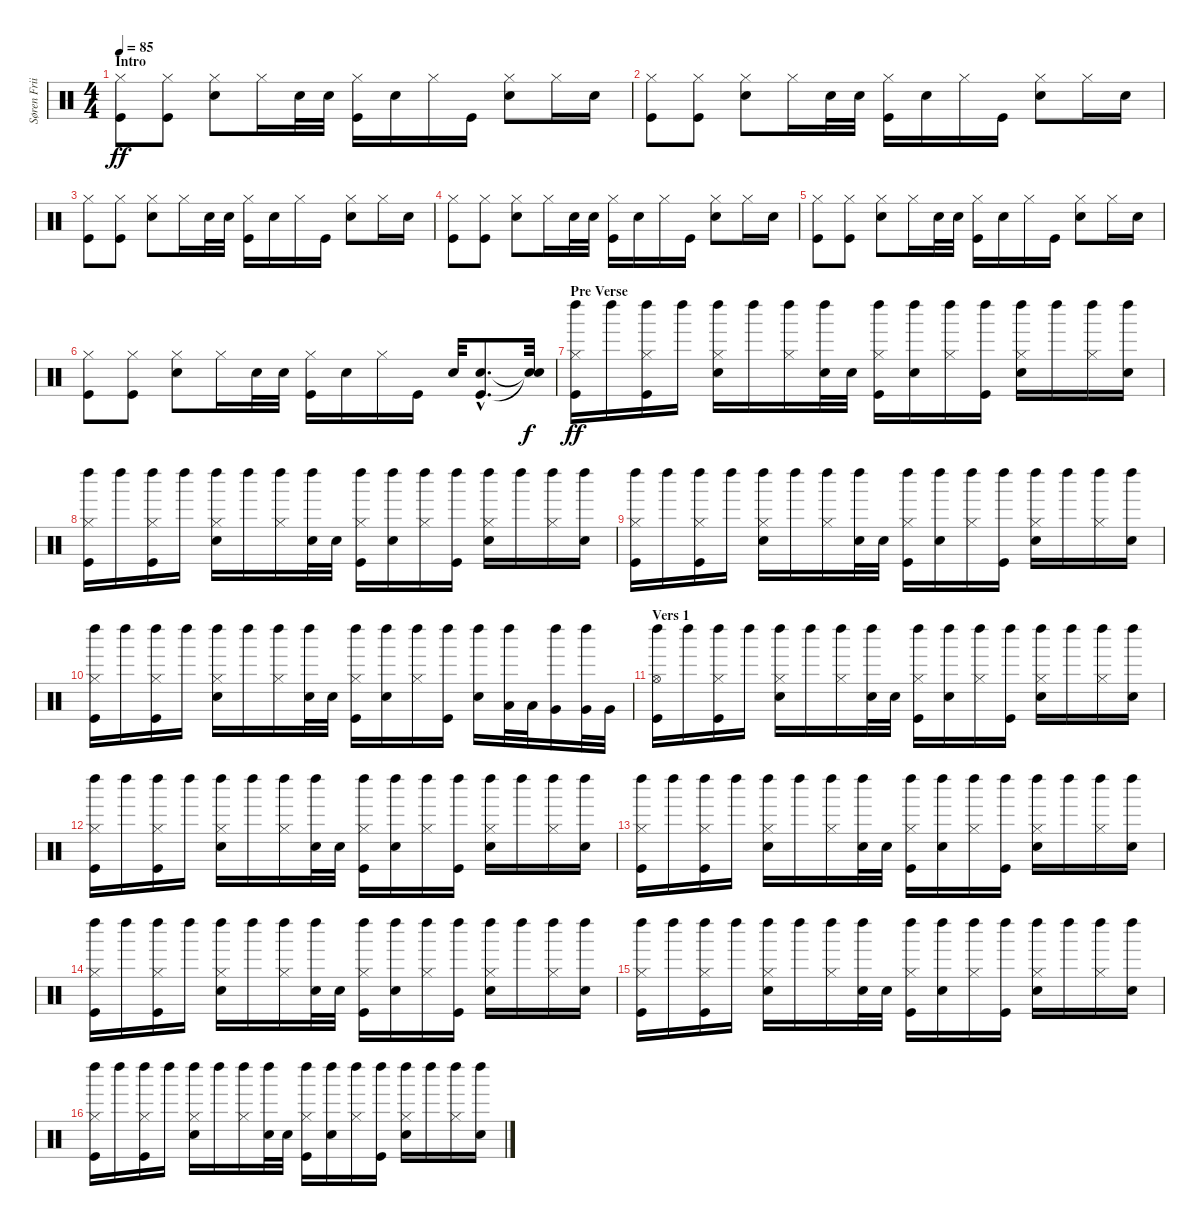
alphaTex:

\track ("Søren Friis (Drums)" "Søren Frii") {instrument percussion}
\staff {score}
\articulation defaults
\ts (4 4)
\section ("" "Intro")
\tempo 85
\clef neutral
\ks c
("Kick (hit)" "Hi-Hat (closed)").8{dy ff} ("Kick (hit)" "Hi-Hat (closed)").8 ("Snare (hit) 2" "Hi-Hat (closed)").8 "Hi-Hat (closed)".16 "Snare (hit) 2".32 "Snare (hit) 2".32 ("Kick (hit)" "Hi-Hat (closed)").16 "Snare (hit) 2".16 "Hi-Hat (closed)".16 "Kick (hit)".16 ("Snare (hit) 2" "Hi-Hat (closed)").8 "Hi-Hat (closed)".16 "Snare (hit) 2".16 |
("Kick (hit)" "Hi-Hat (closed)").8 ("Kick (hit)" "Hi-Hat (closed)").8 ("Snare (hit) 2" "Hi-Hat (closed)").8 "Hi-Hat (closed)".16 "Snare (hit) 2".32 "Snare (hit) 2".32 ("Kick (hit)" "Hi-Hat (closed)").16 "Snare (hit) 2".16 "Hi-Hat (closed)".16 "Kick (hit)".16 ("Snare (hit) 2" "Hi-Hat (closed)").8 "Hi-Hat (closed)".16 "Snare (hit) 2".16 |
("Kick (hit)" "Hi-Hat (closed)").8 ("Kick (hit)" "Hi-Hat (closed)").8 ("Snare (hit) 2" "Hi-Hat (closed)").8 "Hi-Hat (closed)".16 "Snare (hit) 2".32 "Snare (hit) 2".32 ("Kick (hit)" "Hi-Hat (closed)").16 "Snare (hit) 2".16 "Hi-Hat (closed)".16 "Kick (hit)".16 ("Snare (hit) 2" "Hi-Hat (closed)").8 "Hi-Hat (closed)".16 "Snare (hit) 2".16 |
("Kick (hit)" "Hi-Hat (closed)").8 ("Kick (hit)" "Hi-Hat (closed)").8 ("Snare (hit) 2" "Hi-Hat (closed)").8 "Hi-Hat (closed)".16 "Snare (hit) 2".32 "Snare (hit) 2".32 ("Kick (hit)" "Hi-Hat (closed)").16 "Snare (hit) 2".16 "Hi-Hat (closed)".16 "Kick (hit)".16 ("Snare (hit) 2" "Hi-Hat (closed)").8 "Hi-Hat (closed)".16 "Snare (hit) 2".16 |
("Kick (hit)" "Hi-Hat (closed)").8 ("Kick (hit)" "Hi-Hat (closed)").8 ("Snare (hit) 2" "Hi-Hat (closed)").8 "Hi-Hat (closed)".16 "Snare (hit) 2".32 "Snare (hit) 2".32 ("Kick (hit)" "Hi-Hat (closed)").16 "Snare (hit) 2".16 "Hi-Hat (closed)".16 "Kick (hit)".16 ("Snare (hit) 2" "Hi-Hat (closed)").8 "Hi-Hat (closed)".16 "Snare (hit) 2".16 |
("Kick (hit)" "Hi-Hat (closed)").8 ("Kick (hit)" "Hi-Hat (closed)").8 ("Snare (hit) 2" "Hi-Hat (closed)").8 "Hi-Hat (closed)".16 "Snare (hit) 2".32 "Snare (hit) 2".32 ("Kick (hit)" "Hi-Hat (closed)").16 "Snare (hit) 2".16 "Hi-Hat (closed)".16 "Kick (hit)".16 "Snare (hit) 2".32 ("Kick (hit)"{hac} "Snare (hit) 2"{hac}).8{d} ("Snare (hit)"{t} "Snare (hit)"{t}).32{dy f} |
\section ("" "Pre Verse")
("Kick (hit)" "Hi-Hat (closed)" "Left Maraca (hit)").16{dy ff} "Left Maraca (hit)".16 ("Kick (hit)" "Hi-Hat (closed)" "Left Maraca (hit)").16 "Left Maraca (hit)".16 ("Snare (hit) 2" "Hi-Hat (closed)" "Left Maraca (hit)").16 "Left Maraca (hit)".16 ("Hi-Hat (closed)" "Left Maraca (hit)").16 ("Snare (hit) 2" "Left Maraca (hit)").32 "Snare (hit) 2".32 ("Kick (hit)" "Hi-Hat (closed)" "Left Maraca (hit)").16 ("Snare (hit) 2" "Left Maraca (hit)").16 ("Hi-Hat (closed)" "Left Maraca (hit)").16 ("Kick (hit)" "Left Maraca (hit)").16 ("Snare (hit) 2" "Hi-Hat (closed)" "Left Maraca (hit)").16 "Left Maraca (hit)".16 ("Hi-Hat (closed)" "Left Maraca (hit)").16 ("Snare (hit) 2" "Left Maraca (hit)").16 |
("Kick (hit)" "Hi-Hat (closed)" "Left Maraca (hit)").16 "Left Maraca (hit)".16 ("Kick (hit)" "Hi-Hat (closed)" "Left Maraca (hit)").16 "Left Maraca (hit)".16 ("Snare (hit) 2" "Hi-Hat (closed)" "Left Maraca (hit)").16 "Left Maraca (hit)".16 ("Hi-Hat (closed)" "Left Maraca (hit)").16 ("Snare (hit) 2" "Left Maraca (hit)").32 "Snare (hit) 2".32 ("Kick (hit)" "Hi-Hat (closed)" "Left Maraca (hit)").16 ("Snare (hit) 2" "Left Maraca (hit)").16 ("Hi-Hat (closed)" "Left Maraca (hit)").16 ("Kick (hit)" "Left Maraca (hit)").16 ("Snare (hit) 2" "Hi-Hat (closed)" "Left Maraca (hit)").16 "Left Maraca (hit)".16 ("Hi-Hat (closed)" "Left Maraca (hit)").16 ("Snare (hit) 2" "Left Maraca (hit)").16 |
("Kick (hit)" "Hi-Hat (closed)" "Left Maraca (hit)").16 "Left Maraca (hit)".16 ("Kick (hit)" "Hi-Hat (closed)" "Left Maraca (hit)").16 "Left Maraca (hit)".16 ("Snare (hit) 2" "Hi-Hat (closed)" "Left Maraca (hit)").16 "Left Maraca (hit)".16 ("Hi-Hat (closed)" "Left Maraca (hit)").16 ("Snare (hit) 2" "Left Maraca (hit)").32 "Snare (hit) 2".32 ("Kick (hit)" "Hi-Hat (closed)" "Left Maraca (hit)").16 ("Snare (hit) 2" "Left Maraca (hit)").16 ("Hi-Hat (closed)" "Left Maraca (hit)").16 ("Kick (hit)" "Left Maraca (hit)").16 ("Snare (hit) 2" "Hi-Hat (closed)" "Left Maraca (hit)").16 "Left Maraca (hit)".16 ("Hi-Hat (closed)" "Left Maraca (hit)").16 ("Snare (hit) 2" "Left Maraca (hit)").16 |
("Kick (hit)" "Hi-Hat (closed)" "Left Maraca (hit)").16 "Left Maraca (hit)".16 ("Kick (hit)" "Hi-Hat (closed)" "Left Maraca (hit)").16 "Left Maraca (hit)".16 ("Snare (hit) 2" "Hi-Hat (closed)" "Left Maraca (hit)").16 "Left Maraca (hit)".16 ("Hi-Hat (closed)" "Left Maraca (hit)").16 ("Snare (hit) 2" "Left Maraca (hit)").32 "Snare (hit) 2".32 ("Kick (hit)" "Hi-Hat (closed)" "Left Maraca (hit)").16 ("Snare (hit) 2" "Left Maraca (hit)").16 ("Hi-Hat (closed)" "Left Maraca (hit)").16 ("Kick (hit)" "Left Maraca (hit)").16 ("Snare (hit) 2" "Left Maraca (hit)").16 ("Low Tom (hit)" "Left Maraca (hit)").32 "Low Tom (hit)".32 ("Very Low Tom (hit)" "Left Maraca (hit)").16 ("Very Low Tom (hit)" "Left Maraca (hit)").32 "Very Low Tom (hit)".32 |
\section ("" "Vers 1")
("Kick (hit)" "Hi-Hat (open)" "Left Maraca (hit)").16 "Left Maraca (hit)".16 ("Kick (hit)" "Hi-Hat (closed)" "Left Maraca (hit)").16 "Left Maraca (hit)".16 ("Snare (hit) 2" "Hi-Hat (closed)" "Left Maraca (hit)").16 "Left Maraca (hit)".16 ("Hi-Hat (closed)" "Left Maraca (hit)").16 ("Snare (hit) 2" "Left Maraca (hit)").32 "Snare (hit) 2".32 ("Kick (hit)" "Hi-Hat (closed)" "Left Maraca (hit)").16 ("Snare (hit) 2" "Left Maraca (hit)").16 ("Hi-Hat (closed)" "Left Maraca (hit)").16 ("Kick (hit)" "Left Maraca (hit)").16 ("Snare (hit) 2" "Hi-Hat (closed)" "Left Maraca (hit)").16 "Left Maraca (hit)".16 ("Hi-Hat (closed)" "Left Maraca (hit)").16 ("Snare (hit) 2" "Left Maraca (hit)").16 |
("Kick (hit)" "Hi-Hat (closed)" "Left Maraca (hit)").16 "Left Maraca (hit)".16 ("Kick (hit)" "Hi-Hat (closed)" "Left Maraca (hit)").16 "Left Maraca (hit)".16 ("Snare (hit) 2" "Hi-Hat (closed)" "Left Maraca (hit)").16 "Left Maraca (hit)".16 ("Hi-Hat (closed)" "Left Maraca (hit)").16 ("Snare (hit) 2" "Left Maraca (hit)").32 "Snare (hit) 2".32 ("Kick (hit)" "Hi-Hat (closed)" "Left Maraca (hit)").16 ("Snare (hit) 2" "Left Maraca (hit)").16 ("Hi-Hat (closed)" "Left Maraca (hit)").16 ("Kick (hit)" "Left Maraca (hit)").16 ("Snare (hit) 2" "Hi-Hat (closed)" "Left Maraca (hit)").16 "Left Maraca (hit)".16 ("Hi-Hat (closed)" "Left Maraca (hit)").16 ("Snare (hit) 2" "Left Maraca (hit)").16 |
("Kick (hit)" "Hi-Hat (closed)" "Left Maraca (hit)").16 "Left Maraca (hit)".16 ("Kick (hit)" "Hi-Hat (closed)" "Left Maraca (hit)").16 "Left Maraca (hit)".16 ("Snare (hit) 2" "Hi-Hat (closed)" "Left Maraca (hit)").16 "Left Maraca (hit)".16 ("Hi-Hat (closed)" "Left Maraca (hit)").16 ("Snare (hit) 2" "Left Maraca (hit)").32 "Snare (hit) 2".32 ("Kick (hit)" "Hi-Hat (closed)" "Left Maraca (hit)").16 ("Snare (hit) 2" "Left Maraca (hit)").16 ("Hi-Hat (closed)" "Left Maraca (hit)").16 ("Kick (hit)" "Left Maraca (hit)").16 ("Snare (hit) 2" "Hi-Hat (closed)" "Left Maraca (hit)").16 "Left Maraca (hit)".16 ("Hi-Hat (closed)" "Left Maraca (hit)").16 ("Snare (hit) 2" "Left Maraca (hit)").16 |
("Kick (hit)" "Hi-Hat (closed)" "Left Maraca (hit)").16 "Left Maraca (hit)".16 ("Kick (hit)" "Hi-Hat (closed)" "Left Maraca (hit)").16 "Left Maraca (hit)".16 ("Snare (hit) 2" "Hi-Hat (closed)" "Left Maraca (hit)").16 "Left Maraca (hit)".16 ("Hi-Hat (closed)" "Left Maraca (hit)").16 ("Snare (hit) 2" "Left Maraca (hit)").32 "Snare (hit) 2".32 ("Kick (hit)" "Hi-Hat (closed)" "Left Maraca (hit)").16 ("Snare (hit) 2" "Left Maraca (hit)").16 ("Hi-Hat (closed)" "Left Maraca (hit)").16 ("Kick (hit)" "Left Maraca (hit)").16 ("Snare (hit) 2" "Hi-Hat (closed)" "Left Maraca (hit)").16 "Left Maraca (hit)".16 ("Hi-Hat (closed)" "Left Maraca (hit)").16 ("Snare (hit) 2" "Left Maraca (hit)").16 |
("Kick (hit)" "Hi-Hat (closed)" "Left Maraca (hit)").16 "Left Maraca (hit)".16 ("Kick (hit)" "Hi-Hat (closed)" "Left Maraca (hit)").16 "Left Maraca (hit)".16 ("Snare (hit) 2" "Hi-Hat (closed)" "Left Maraca (hit)").16 "Left Maraca (hit)".16 ("Hi-Hat (closed)" "Left Maraca (hit)").16 ("Snare (hit) 2" "Left Maraca (hit)").32 "Snare (hit) 2".32 ("Kick (hit)" "Hi-Hat (closed)" "Left Maraca (hit)").16 ("Snare (hit) 2" "Left Maraca (hit)").16 ("Hi-Hat (closed)" "Left Maraca (hit)").16 ("Kick (hit)" "Left Maraca (hit)").16 ("Snare (hit) 2" "Hi-Hat (closed)" "Left Maraca (hit)").16 "Left Maraca (hit)".16 ("Hi-Hat (closed)" "Left Maraca (hit)").16 ("Snare (hit) 2" "Left Maraca (hit)").16 |
("Kick (hit)" "Hi-Hat (closed)" "Left Maraca (hit)").16 "Left Maraca (hit)".16 ("Kick (hit)" "Hi-Hat (closed)" "Left Maraca (hit)").16 "Left Maraca (hit)".16 ("Snare (hit) 2" "Hi-Hat (closed)" "Left Maraca (hit)").16 "Left Maraca (hit)".16 ("Hi-Hat (closed)" "Left Maraca (hit)").16 ("Snare (hit) 2" "Left Maraca (hit)").32 "Snare (hit) 2".32 ("Kick (hit)" "Hi-Hat (closed)" "Left Maraca (hit)").16 ("Snare (hit) 2" "Left Maraca (hit)").16 ("Hi-Hat (closed)" "Left Maraca (hit)").16 ("Kick (hit)" "Left Maraca (hit)").16 ("Snare (hit) 2" "Hi-Hat (closed)" "Left Maraca (hit)").16 "Left Maraca (hit)".16 ("Hi-Hat (closed)" "Left Maraca (hit)").16 ("Snare (hit) 2" "Left Maraca (hit)").16
